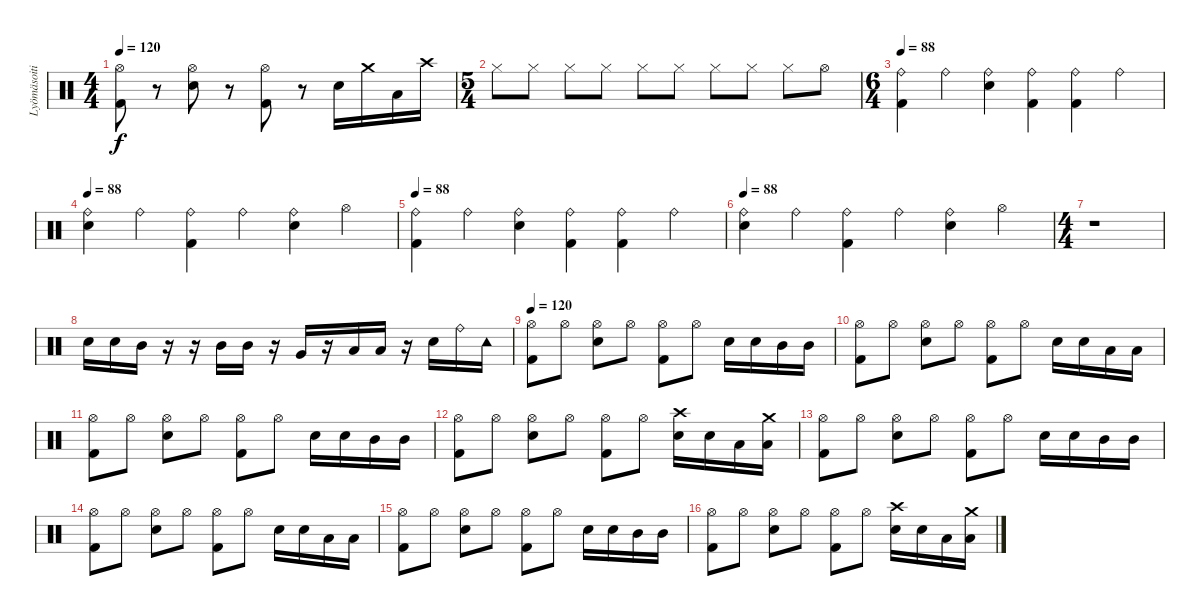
\track ("Lyömäsoitin" "Lyömäsoiti") {instrument percussion}
\staff {score}
\articulation defaults
\ts (4 4)
\tempo 120
\clef neutral
\ks c
("Hi-Hat (open)" "Kick (hit) 2").8{dy f} r.8 ("Hi-Hat (open)" "Snare (hit) 2").8 r.8 ("Hi-Hat (open)" "Kick (hit) 2").8 r.8 "Snare (hit) 2".16 "Crash medium (hit)".16 "Low Tom (hit)".16 "Crash high (hit)".16 |
\ts (5 4)
"Hi-Hat (closed)".8 "Hi-Hat (closed)".8 "Hi-Hat (closed)".8 "Hi-Hat (closed)".8 "Hi-Hat (closed)".8 "Hi-Hat (closed)".8 "Hi-Hat (closed)".8 "Hi-Hat (closed)".8 "Hi-Hat (closed)".8 "Hi-Hat (open)".8 |
\ts (6 4)
\tempo 88
("Ride (bell)" "Kick (hit) 2").4 "Ride (bell)".4 ("Ride (bell)" "Snare (hit) 2").4 ("Ride (bell)" "Kick (hit) 2").4 ("Ride (bell)" "Kick (hit) 2").4 "Ride (bell)".4 |
\tempo 88
("Ride (bell)" "Snare (hit) 2").4 "Ride (bell)".4 ("Ride (bell)" "Kick (hit) 2").4 "Ride (bell)".4 ("Ride (bell)" "Snare (hit) 2").4 "Hi-Hat (open)".4 |
\tempo 88
("Ride (bell)" "Kick (hit) 2").4 "Ride (bell)".4 ("Ride (bell)" "Snare (hit) 2").4 ("Ride (bell)" "Kick (hit) 2").4 ("Ride (bell)" "Kick (hit) 2").4 "Ride (bell)".4 |
\tempo 88
("Ride (bell)" "Snare (hit) 2").4 "Ride (bell)".4 ("Ride (bell)" "Kick (hit) 2").4 "Ride (bell)".4 ("Ride (bell)" "Snare (hit) 2").4 "Hi-Hat (open)".4 |
\ts (4 4)
r.1 |
"Snare (hit) 2".16 "Snare (hit) 2".16 "Mid Tom (hit)".16 r.16 r.16 "Mid Tom (hit)".16 "Mid Tom (hit)".16 r.16 "Very Low Tom (hit)".16 r.16 "Low Tom (hit)".16 "Low Tom (hit)".16 r.16 "Snare (hit) 2".16 "Ride (bell)".16 "Tambourine (hit)".16 |
\tempo 120
("Hi-Hat (open)" "Kick (hit) 2").8 "Hi-Hat (open)".8 ("Hi-Hat (open)" "Snare (hit) 2").8 "Hi-Hat (open)".8 ("Hi-Hat (open)" "Kick (hit) 2").8 "Hi-Hat (open)".8 "Snare (hit) 2".16 "Snare (hit) 2".16 "Mid Tom (hit)".16 "Mid Tom (hit)".16 |
("Hi-Hat (open)" "Kick (hit) 2").8 "Hi-Hat (open)".8 ("Hi-Hat (open)" "Snare (hit) 2").8 "Hi-Hat (open)".8 ("Hi-Hat (open)" "Kick (hit) 2").8 "Hi-Hat (open)".8 "Snare (hit) 2".16 "Snare (hit) 2".16 "Low Tom (hit)".16 "Low Tom (hit)".16 |
("Hi-Hat (open)" "Kick (hit) 2").8 "Hi-Hat (open)".8 ("Hi-Hat (open)" "Snare (hit) 2").8 "Hi-Hat (open)".8 ("Hi-Hat (open)" "Kick (hit) 2").8 "Hi-Hat (open)".8 "Snare (hit) 2".16 "Snare (hit) 2".16 "Mid Tom (hit)".16 "Mid Tom (hit)".16 |
("Hi-Hat (open)" "Kick (hit) 2").8 "Hi-Hat (open)".8 ("Hi-Hat (open)" "Snare (hit) 2").8 "Hi-Hat (open)".8 ("Hi-Hat (open)" "Kick (hit) 2").8 "Hi-Hat (open)".8 ("Snare (hit) 2" "Crash high (hit)").16 "Snare (hit) 2".16 "Low Tom (hit)".16 ("Low Tom (hit)" "Crash medium (hit)").16 |
("Hi-Hat (open)" "Kick (hit) 2").8 "Hi-Hat (open)".8 ("Hi-Hat (open)" "Snare (hit) 2").8 "Hi-Hat (open)".8 ("Hi-Hat (open)" "Kick (hit) 2").8 "Hi-Hat (open)".8 "Snare (hit) 2".16 "Snare (hit) 2".16 "Mid Tom (hit)".16 "Mid Tom (hit)".16 |
("Hi-Hat (open)" "Kick (hit) 2").8 "Hi-Hat (open)".8 ("Hi-Hat (open)" "Snare (hit) 2").8 "Hi-Hat (open)".8 ("Hi-Hat (open)" "Kick (hit) 2").8 "Hi-Hat (open)".8 "Snare (hit) 2".16 "Snare (hit) 2".16 "Low Tom (hit)".16 "Low Tom (hit)".16 |
("Hi-Hat (open)" "Kick (hit) 2").8 "Hi-Hat (open)".8 ("Hi-Hat (open)" "Snare (hit) 2").8 "Hi-Hat (open)".8 ("Hi-Hat (open)" "Kick (hit) 2").8 "Hi-Hat (open)".8 "Snare (hit) 2".16 "Snare (hit) 2".16 "Mid Tom (hit)".16 "Mid Tom (hit)".16 |
("Hi-Hat (open)" "Kick (hit) 2").8 "Hi-Hat (open)".8 ("Hi-Hat (open)" "Snare (hit) 2").8 "Hi-Hat (open)".8 ("Hi-Hat (open)" "Kick (hit) 2").8 "Hi-Hat (open)".8 ("Snare (hit) 2" "Crash high (hit)").16 "Snare (hit) 2".16 "Low Tom (hit)".16 ("Low Tom (hit)" "Crash medium (hit)").16
